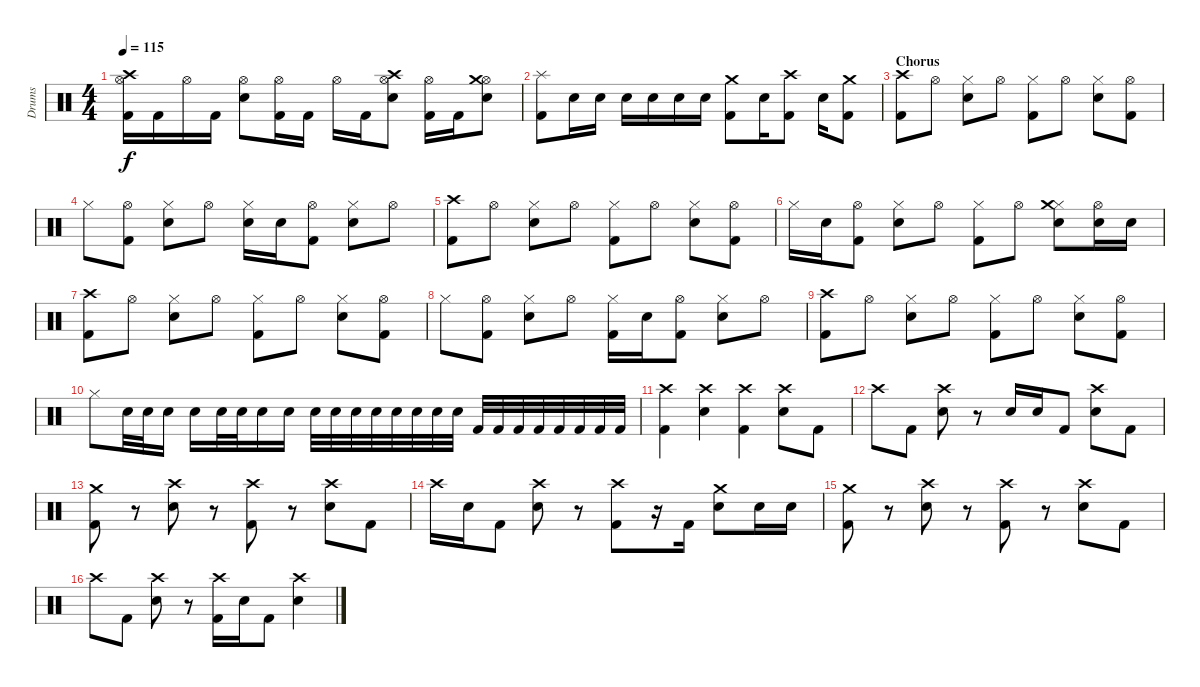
\track ("Drums" "Drums") {instrument percussion}
\staff {score}
\articulation defaults
\ts (4 4)
\tempo 115
\clef neutral
\ks c
("Kick (hit) 2" "Hi-Hat (open)" "Crash high (hit)").16{dy f} "Kick (hit) 2".16 "Hi-Hat (open)".16 "Kick (hit) 2".16 ("Electric Snare (hit)" "Hi-Hat (open)").8 ("Kick (hit) 2" "Hi-Hat (open)").16 "Kick (hit) 2".16 "Hi-Hat (open)".16 "Kick (hit) 2".16 ("Electric Snare (hit)" "Hi-Hat (open)" "Crash high (hit)").8 ("Kick (hit) 2" "Hi-Hat (open)").16 "Kick (hit) 2".16 ("Electric Snare (hit)" "Hi-Hat (open)" "Crash medium (hit)").8 |
("Kick (hit) 2" "Splash (hit)").8 "Electric Snare (hit)".16 "Electric Snare (hit)".16 "Electric Snare (hit)".16 "Electric Snare (hit)".16 "Electric Snare (hit)".16 "Electric Snare (hit)".16 ("Kick (hit) 2" "Crash medium (hit)").8 "Electric Snare (hit)".16 ("Kick (hit) 2" "Crash high (hit)").8 "Electric Snare (hit)".16 ("Kick (hit) 2" "Crash medium (hit)").8 |
\section ("" "Chorus")
("Kick (hit) 2" "Crash high (hit)").8 "Hi-Hat (open)".8 ("Electric Snare (hit)" "Hi-Hat (closed)").8 "Hi-Hat (open)".8 ("Kick (hit) 2" "Hi-Hat (closed)").8 "Hi-Hat (open)".8 ("Electric Snare (hit)" "Hi-Hat (closed)").8 ("Kick (hit) 2" "Hi-Hat (open)").8 |
"Hi-Hat (closed)".8 ("Kick (hit) 2" "Hi-Hat (open)").8 ("Electric Snare (hit)" "Hi-Hat (closed)").8 "Hi-Hat (open)".8 ("Electric Snare (hit)" "Hi-Hat (closed)").16 "Electric Snare (hit)".16 ("Kick (hit) 2" "Hi-Hat (open)").8 ("Electric Snare (hit)" "Hi-Hat (closed)").8 "Hi-Hat (open)".8 |
("Kick (hit) 2" "Crash high (hit)").8 "Hi-Hat (open)".8 ("Electric Snare (hit)" "Hi-Hat (closed)").8 "Hi-Hat (open)".8 ("Kick (hit) 2" "Hi-Hat (closed)").8 "Hi-Hat (open)".8 ("Electric Snare (hit)" "Hi-Hat (closed)").8 ("Kick (hit) 2" "Hi-Hat (open)").8 |
"Hi-Hat (closed)".16 "Electric Snare (hit)".16 ("Kick (hit) 2" "Hi-Hat (open)").8 ("Electric Snare (hit)" "Hi-Hat (closed)").8 "Hi-Hat (open)".8 ("Kick (hit) 2" "Hi-Hat (closed)").8 "Hi-Hat (open)".8 ("Electric Snare (hit)" "Hi-Hat (closed)" "Crash medium (hit)").8 ("Electric Snare (hit)" "Hi-Hat (open)").16 "Electric Snare (hit)".16 |
("Kick (hit) 2" "Crash high (hit)").8 "Hi-Hat (open)".8 ("Electric Snare (hit)" "Hi-Hat (closed)").8 "Hi-Hat (open)".8 ("Kick (hit) 2" "Hi-Hat (closed)").8 "Hi-Hat (open)".8 ("Electric Snare (hit)" "Hi-Hat (closed)").8 ("Kick (hit) 2" "Hi-Hat (open)").8 |
"Hi-Hat (closed)".8 ("Kick (hit) 2" "Hi-Hat (open)").8 ("Electric Snare (hit)" "Hi-Hat (closed)").8 "Hi-Hat (open)".8 ("Kick (hit) 2" "Hi-Hat (closed)").16 "Electric Snare (hit)".16 ("Kick (hit) 2" "Hi-Hat (open)").8 ("Electric Snare (hit)" "Hi-Hat (closed)").8 "Hi-Hat (open)".8 |
("Kick (hit) 2" "Crash high (hit)").8 "Hi-Hat (open)".8 ("Electric Snare (hit)" "Hi-Hat (closed)").8 "Hi-Hat (open)".8 ("Kick (hit) 2" "Hi-Hat (closed)").8 "Hi-Hat (open)".8 ("Electric Snare (hit)" "Hi-Hat (closed)").8 ("Kick (hit) 2" "Hi-Hat (open)").8 |
"Hi-Hat (closed)".8 "Electric Snare (hit)".32 "Electric Snare (hit)".32 "Electric Snare (hit)".16 "Electric Snare (hit)".16 "Electric Snare (hit)".32 "Electric Snare (hit)".32 "Electric Snare (hit)".16 "Electric Snare (hit)".16 "Electric Snare (hit)".32 "Electric Snare (hit)".32 "Electric Snare (hit)".32 "Electric Snare (hit)".32 "Electric Snare (hit)".32 "Electric Snare (hit)".32 "Electric Snare (hit)".32 "Electric Snare (hit)".32 "Kick (hit) 2".32 "Kick (hit) 2".32 "Kick (hit) 2".32 "Kick (hit) 2".32 "Kick (hit) 2".32 "Kick (hit) 2".32 "Kick (hit) 2".32 "Kick (hit) 2".32 |
("Kick (hit) 2" "Crash high (hit)").4 ("Electric Snare (hit)" "Crash high (hit)").4 ("Kick (hit) 2" "Crash high (hit)").4 ("Electric Snare (hit)" "Crash high (hit)").8 "Kick (hit) 2".8 |
"Crash high (hit)".8 "Kick (hit) 2".8 ("Electric Snare (hit)" "Crash high (hit)").8 r.8 "Electric Snare (hit)".16 "Electric Snare (hit)".16 "Kick (hit) 2".8 ("Electric Snare (hit)" "Crash high (hit)").8 "Kick (hit) 2".8 |
("Kick (hit) 2" "Crash medium (hit)").8 r.8 ("Electric Snare (hit)" "Crash high (hit)").8 r.8 ("Kick (hit) 2" "Crash high (hit)").8 r.8 ("Electric Snare (hit)" "Crash high (hit)").8 "Kick (hit) 2".8 |
"Crash high (hit)".16 "Electric Snare (hit)".16 "Kick (hit) 2".8 ("Electric Snare (hit)" "Crash high (hit)").8 r.8 ("Kick (hit) 2" "Crash high (hit)").8 r.16 "Kick (hit) 2".16 ("Electric Snare (hit)" "Crash medium (hit)").8 "Electric Snare (hit)".16 "Electric Snare (hit)".16 |
("Kick (hit) 2" "Crash medium (hit)").8 r.8 ("Electric Snare (hit)" "Crash high (hit)").8 r.8 ("Kick (hit) 2" "Crash high (hit)").8 r.8 ("Electric Snare (hit)" "Crash high (hit)").8 "Kick (hit) 2".8 |
"Crash high (hit)".8 "Kick (hit) 2".8 ("Electric Snare (hit)" "Crash high (hit)").8 r.8 ("Kick (hit) 2" "Crash high (hit)").16 "Electric Snare (hit)".16 "Kick (hit) 2".8 ("Electric Snare (hit)" "Crash high (hit)").4
